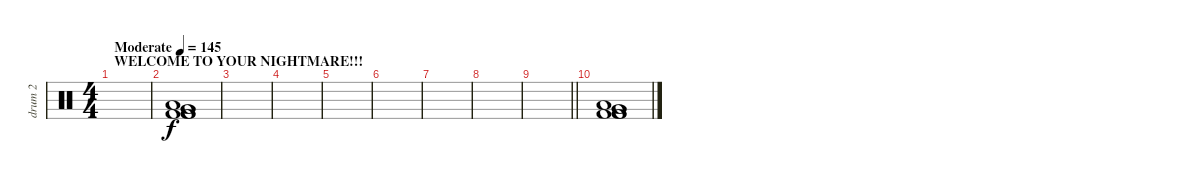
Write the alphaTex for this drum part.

\track ("drum 2" "drum 2") {instrument percussion}
\staff {score}
\articulation defaults
\ts (4 4)
\section ("" "WELCOME TO YOUR NIGHTMARE!!!")
\tempo (145 "Moderate")
\clef neutral
\ks c
|
("Low Floor Tom (hit)" "Very Low Tom (hit)" "Very Low Tom (hit)" "Kick (hit) 2" "Kick (hit) 2" "Kick (hit) 2").1 |
|
|
|
|
|
|
\barLineRight lightlight
|
\section ("" "")
("Low Floor Tom (hit)" "Very Low Tom (hit)" "Very Low Tom (hit)" "Kick (hit) 2" "Kick (hit) 2" "Kick (hit) 2").1
